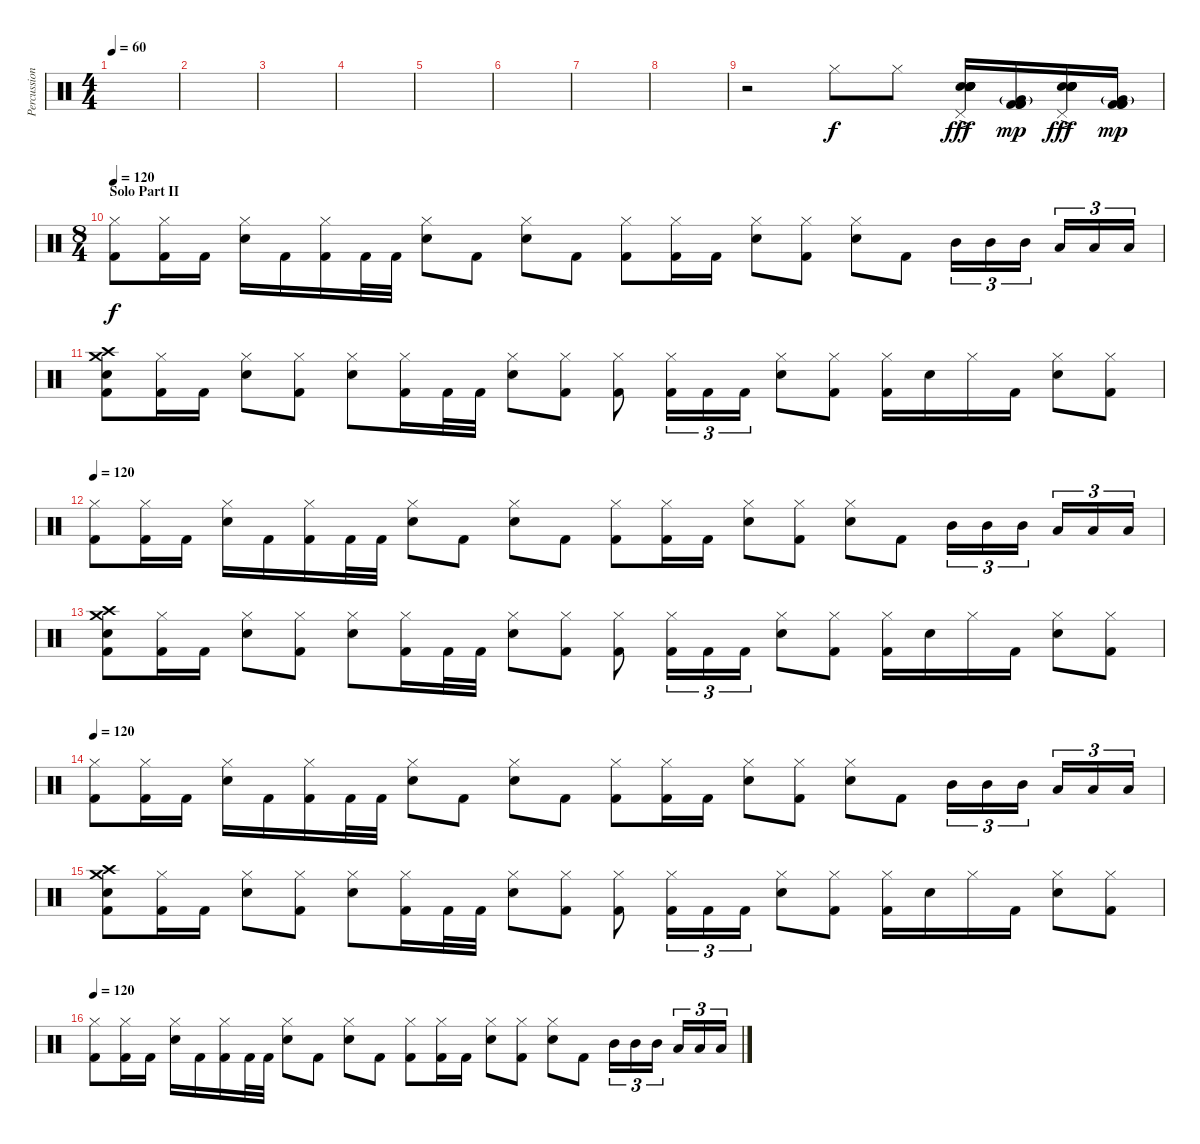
\track ("Percussion" "Percussion") {instrument percussion}
\staff {score}
\articulation defaults
\ts (4 4)
\tempo 60
\clef neutral
\ks c
|
|
|
|
|
|
|
|
r.2 "Hi-Hat (closed)".8 "Hi-Hat (closed)".8 ("Pedal Hi-Hat (hit)" "Snare (hit) 2"{ac} "Snare (hit) 2"{ac} "Snare (hit) 2"{ac} "Snare (hit) 2"{ac} "Snare (hit) 2"{ac}).16{dy fff} ("Very Low Tom (hit)"{g} "Kick (hit) 2" "Kick (hit) 2" "Kick (hit) 2").16{dy mp} ("Pedal Hi-Hat (hit)" "Snare (hit) 2"{ac} "Snare (hit) 2" "Snare (hit) 2"{ac} "Snare (hit) 2"{ac} "Snare (hit) 2"{ac}).16{dy fff} ("Very Low Tom (hit)"{g} "Kick (hit) 2" "Kick (hit) 2" "Kick (hit) 2").16{dy mp} |
\ts (8 4)
\section ("" "Solo Part II")
\tempo 120
("Hi-Hat (closed)" "Kick (hit) 2").8{dy f volume 13} ("Hi-Hat (closed)" "Kick (hit) 2").16 "Kick (hit) 2".16 ("Hi-Hat (closed)" "Snare (hit) 2").16 "Kick (hit) 2".16 ("Hi-Hat (closed)" "Kick (hit) 2").16 "Kick (hit) 2".32 "Kick (hit) 2".32 ("Hi-Hat (closed)" "Snare (hit) 2").8 "Kick (hit) 2".8 ("Hi-Hat (closed)" "Snare (hit) 2").8 "Kick (hit) 2".8 ("Hi-Hat (closed)" "Kick (hit) 2").8 ("Hi-Hat (closed)" "Kick (hit) 2").16 "Kick (hit) 2".16 ("Hi-Hat (closed)" "Snare (hit) 2").8 ("Hi-Hat (closed)" "Kick (hit) 2").8 ("Hi-Hat (closed)" "Snare (hit) 2").8 "Kick (hit) 2".8 "Mid Tom (hit)".16{tu (3 2)} "Mid Tom (hit)".16{tu (3 2)} "Mid Tom (hit)".16{tu (3 2)} "Low Tom (hit)".16{tu (3 2)} "Low Tom (hit)".16{tu (3 2)} "Low Tom (hit)".16{tu (3 2)} |
("Crash medium (hit)" "Crash high (hit)" "Snare (hit) 2" "Kick (hit) 2").8 ("Hi-Hat (closed)" "Kick (hit) 2").16 "Kick (hit) 2".16 ("Hi-Hat (closed)" "Snare (hit) 2").8 ("Hi-Hat (closed)" "Kick (hit) 2").8 ("Hi-Hat (closed)" "Snare (hit) 2").8 ("Hi-Hat (closed)" "Kick (hit) 2").16 "Kick (hit) 2".32 "Kick (hit) 2".32 ("Hi-Hat (closed)" "Snare (hit) 2").8 ("Hi-Hat (closed)" "Kick (hit) 2").8 ("Hi-Hat (closed)" "Kick (hit) 2").8 ("Hi-Hat (closed)" "Kick (hit) 2").16{tu (3 2)} "Kick (hit) 2".16{tu (3 2)} "Kick (hit) 2".16{tu (3 2)} ("Hi-Hat (closed)" "Snare (hit) 2").8 ("Hi-Hat (closed)" "Kick (hit) 2").8 ("Hi-Hat (closed)" "Kick (hit) 2").16 "Snare (hit) 2".16 "Hi-Hat (closed)".16 "Kick (hit) 2".16 ("Hi-Hat (closed)" "Snare (hit) 2").8 ("Hi-Hat (closed)" "Kick (hit) 2").8 |
\tempo 120
("Hi-Hat (closed)" "Kick (hit) 2").8{volume 13} ("Hi-Hat (closed)" "Kick (hit) 2").16 "Kick (hit) 2".16 ("Hi-Hat (closed)" "Snare (hit) 2").16 "Kick (hit) 2".16 ("Hi-Hat (closed)" "Kick (hit) 2").16 "Kick (hit) 2".32 "Kick (hit) 2".32 ("Hi-Hat (closed)" "Snare (hit) 2").8 "Kick (hit) 2".8 ("Hi-Hat (closed)" "Snare (hit) 2").8 "Kick (hit) 2".8 ("Hi-Hat (closed)" "Kick (hit) 2").8 ("Hi-Hat (closed)" "Kick (hit) 2").16 "Kick (hit) 2".16 ("Hi-Hat (closed)" "Snare (hit) 2").8 ("Hi-Hat (closed)" "Kick (hit) 2").8 ("Hi-Hat (closed)" "Snare (hit) 2").8 "Kick (hit) 2".8 "Mid Tom (hit)".16{tu (3 2)} "Mid Tom (hit)".16{tu (3 2)} "Mid Tom (hit)".16{tu (3 2)} "Low Tom (hit)".16{tu (3 2)} "Low Tom (hit)".16{tu (3 2)} "Low Tom (hit)".16{tu (3 2)} |
("Crash medium (hit)" "Crash high (hit)" "Snare (hit) 2" "Kick (hit) 2").8 ("Hi-Hat (closed)" "Kick (hit) 2").16 "Kick (hit) 2".16 ("Hi-Hat (closed)" "Snare (hit) 2").8 ("Hi-Hat (closed)" "Kick (hit) 2").8 ("Hi-Hat (closed)" "Snare (hit) 2").8 ("Hi-Hat (closed)" "Kick (hit) 2").16 "Kick (hit) 2".32 "Kick (hit) 2".32 ("Hi-Hat (closed)" "Snare (hit) 2").8 ("Hi-Hat (closed)" "Kick (hit) 2").8 ("Hi-Hat (closed)" "Kick (hit) 2").8 ("Hi-Hat (closed)" "Kick (hit) 2").16{tu (3 2)} "Kick (hit) 2".16{tu (3 2)} "Kick (hit) 2".16{tu (3 2)} ("Hi-Hat (closed)" "Snare (hit) 2").8 ("Hi-Hat (closed)" "Kick (hit) 2").8 ("Hi-Hat (closed)" "Kick (hit) 2").16 "Snare (hit) 2".16 "Hi-Hat (closed)".16 "Kick (hit) 2".16 ("Hi-Hat (closed)" "Snare (hit) 2").8 ("Hi-Hat (closed)" "Kick (hit) 2").8 |
\tempo 120
("Hi-Hat (closed)" "Kick (hit) 2").8{volume 13} ("Hi-Hat (closed)" "Kick (hit) 2").16 "Kick (hit) 2".16 ("Hi-Hat (closed)" "Snare (hit) 2").16 "Kick (hit) 2".16 ("Hi-Hat (closed)" "Kick (hit) 2").16 "Kick (hit) 2".32 "Kick (hit) 2".32 ("Hi-Hat (closed)" "Snare (hit) 2").8 "Kick (hit) 2".8 ("Hi-Hat (closed)" "Snare (hit) 2").8 "Kick (hit) 2".8 ("Hi-Hat (closed)" "Kick (hit) 2").8 ("Hi-Hat (closed)" "Kick (hit) 2").16 "Kick (hit) 2".16 ("Hi-Hat (closed)" "Snare (hit) 2").8 ("Hi-Hat (closed)" "Kick (hit) 2").8 ("Hi-Hat (closed)" "Snare (hit) 2").8 "Kick (hit) 2".8 "Mid Tom (hit)".16{tu (3 2)} "Mid Tom (hit)".16{tu (3 2)} "Mid Tom (hit)".16{tu (3 2)} "Low Tom (hit)".16{tu (3 2)} "Low Tom (hit)".16{tu (3 2)} "Low Tom (hit)".16{tu (3 2)} |
("Crash medium (hit)" "Crash high (hit)" "Snare (hit) 2" "Kick (hit) 2").8 ("Hi-Hat (closed)" "Kick (hit) 2").16 "Kick (hit) 2".16 ("Hi-Hat (closed)" "Snare (hit) 2").8 ("Hi-Hat (closed)" "Kick (hit) 2").8 ("Hi-Hat (closed)" "Snare (hit) 2").8 ("Hi-Hat (closed)" "Kick (hit) 2").16 "Kick (hit) 2".32 "Kick (hit) 2".32 ("Hi-Hat (closed)" "Snare (hit) 2").8 ("Hi-Hat (closed)" "Kick (hit) 2").8 ("Hi-Hat (closed)" "Kick (hit) 2").8 ("Hi-Hat (closed)" "Kick (hit) 2").16{tu (3 2)} "Kick (hit) 2".16{tu (3 2)} "Kick (hit) 2".16{tu (3 2)} ("Hi-Hat (closed)" "Snare (hit) 2").8 ("Hi-Hat (closed)" "Kick (hit) 2").8 ("Hi-Hat (closed)" "Kick (hit) 2").16 "Snare (hit) 2".16 "Hi-Hat (closed)".16 "Kick (hit) 2".16 ("Hi-Hat (closed)" "Snare (hit) 2").8 ("Hi-Hat (closed)" "Kick (hit) 2").8 |
\tempo 120
("Hi-Hat (closed)" "Kick (hit) 2").8{volume 13} ("Hi-Hat (closed)" "Kick (hit) 2").16 "Kick (hit) 2".16 ("Hi-Hat (closed)" "Snare (hit) 2").16 "Kick (hit) 2".16 ("Hi-Hat (closed)" "Kick (hit) 2").16 "Kick (hit) 2".32 "Kick (hit) 2".32 ("Hi-Hat (closed)" "Snare (hit) 2").8 "Kick (hit) 2".8 ("Hi-Hat (closed)" "Snare (hit) 2").8 "Kick (hit) 2".8 ("Hi-Hat (closed)" "Kick (hit) 2").8 ("Hi-Hat (closed)" "Kick (hit) 2").16 "Kick (hit) 2".16 ("Hi-Hat (closed)" "Snare (hit) 2").8 ("Hi-Hat (closed)" "Kick (hit) 2").8 ("Hi-Hat (closed)" "Snare (hit) 2").8 "Kick (hit) 2".8 "Mid Tom (hit)".16{tu (3 2)} "Mid Tom (hit)".16{tu (3 2)} "Mid Tom (hit)".16{tu (3 2)} "Low Tom (hit)".16{tu (3 2)} "Low Tom (hit)".16{tu (3 2)} "Low Tom (hit)".16{tu (3 2)}
